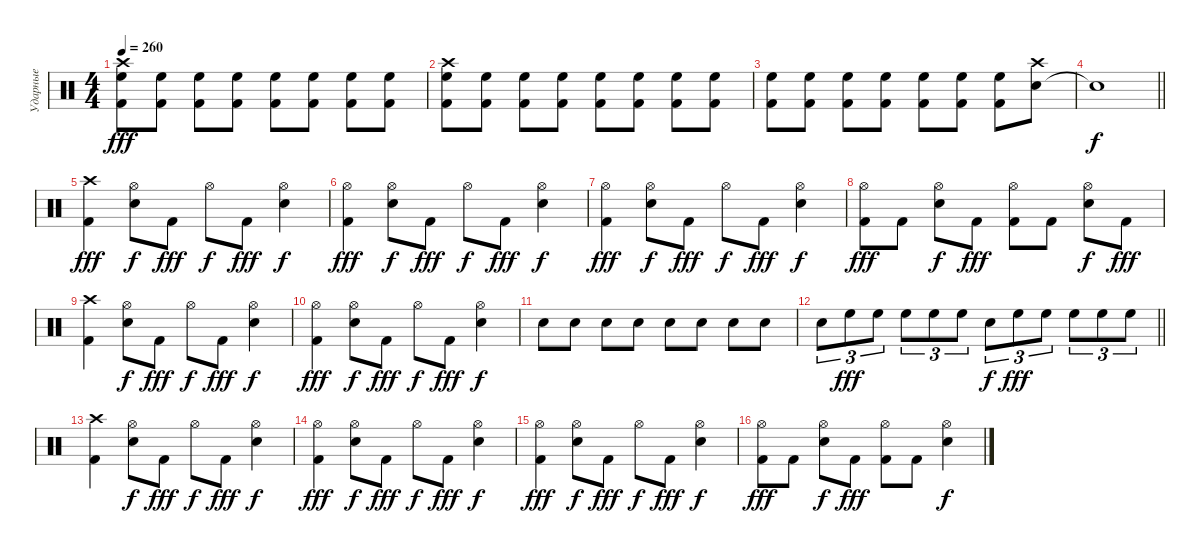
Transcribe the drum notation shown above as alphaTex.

\track ("Ударные" "Ударные") {instrument percussion}
\staff {score}
\articulation defaults
\ts (4 4)
\tempo 260
\clef neutral
\ks c
("Kick (hit) 2" "High Floor Tom (hit)" "Crash high (hit)").8{dy fff} ("Kick (hit) 2" "High Floor Tom (hit)").8 ("Kick (hit) 2" "High Floor Tom (hit)").8 ("Kick (hit) 2" "High Floor Tom (hit)").8 ("Kick (hit) 2" "High Floor Tom (hit)").8 ("Kick (hit) 2" "High Floor Tom (hit)").8 ("Kick (hit) 2" "High Floor Tom (hit)").8 ("Kick (hit) 2" "High Floor Tom (hit)").8 |
("Kick (hit) 2" "High Floor Tom (hit)" "Crash high (hit)").8 ("Kick (hit) 2" "High Floor Tom (hit)").8 ("Kick (hit) 2" "High Floor Tom (hit)").8 ("Kick (hit) 2" "High Floor Tom (hit)").8 ("Kick (hit) 2" "High Floor Tom (hit)").8 ("Kick (hit) 2" "High Floor Tom (hit)").8 ("Kick (hit) 2" "High Floor Tom (hit)").8 ("Kick (hit) 2" "High Floor Tom (hit)").8 |
("Kick (hit) 2" "High Floor Tom (hit)").8 ("Kick (hit) 2" "High Floor Tom (hit)").8 ("Kick (hit) 2" "High Floor Tom (hit)").8 ("Kick (hit) 2" "High Floor Tom (hit)").8 ("Kick (hit) 2" "High Floor Tom (hit)").8 ("Kick (hit) 2" "High Floor Tom (hit)").8 ("Kick (hit) 2" "High Floor Tom (hit)").8 ("Snare (hit) 2" "Crash high (hit)").8 |
\barLineRight lightlight "Snare (hit)"{t}.1{dy f}
|
("Kick (hit) 2" "Crash high (hit)").4{dy fff} ("Snare (hit) 2" "Hi-Hat (open)").8{dy f} "Kick (hit) 2".8{dy fff} "Hi-Hat (open)".8{dy f} "Kick (hit) 2".8{dy fff} ("Snare (hit) 2" "Hi-Hat (open)").4{dy f} |
("Kick (hit) 2" "Hi-Hat (open)").4{dy fff} ("Snare (hit) 2" "Hi-Hat (open)").8{dy f} "Kick (hit) 2".8{dy fff} "Hi-Hat (open)".8{dy f} "Kick (hit) 2".8{dy fff} ("Snare (hit) 2" "Hi-Hat (open)").4{dy f} |
("Kick (hit) 2" "Hi-Hat (open)").4{dy fff} ("Snare (hit) 2" "Hi-Hat (open)").8{dy f} "Kick (hit) 2".8{dy fff} "Hi-Hat (open)".8{dy f} "Kick (hit) 2".8{dy fff} ("Snare (hit) 2" "Hi-Hat (open)").4{dy f} |
("Kick (hit) 2" "Hi-Hat (open)").8{dy fff} "Kick (hit) 2".8 ("Snare (hit) 2" "Hi-Hat (open)").8{dy f} "Kick (hit) 2".8{dy fff} ("Kick (hit) 2" "Hi-Hat (open)").8 "Kick (hit) 2".8 ("Snare (hit) 2" "Hi-Hat (open)").8{dy f} "Kick (hit) 2".8{dy fff} |
("Kick (hit) 2" "Crash high (hit)").4 ("Snare (hit) 2" "Hi-Hat (open)").8{dy f} "Kick (hit) 2".8{dy fff} "Hi-Hat (open)".8{dy f} "Kick (hit) 2".8{dy fff} ("Snare (hit) 2" "Hi-Hat (open)").4{dy f} |
("Kick (hit) 2" "Hi-Hat (open)").4{dy fff} ("Snare (hit) 2" "Hi-Hat (open)").8{dy f} "Kick (hit) 2".8{dy fff} "Hi-Hat (open)".8{dy f} "Kick (hit) 2".8{dy fff} ("Snare (hit) 2" "Hi-Hat (open)").4{dy f} |
"Snare (hit) 2".8 "Snare (hit) 2".8 "Snare (hit) 2".8 "Snare (hit) 2".8 "Snare (hit) 2".8 "Snare (hit) 2".8 "Snare (hit) 2".8 "Snare (hit) 2".8 |
\barLineRight lightlight "Snare (hit) 2".8{tu (3 2)} "High Floor Tom (hit)".8{tu (3 2) dy fff} "High Floor Tom (hit)".8{tu (3 2)} "High Floor Tom (hit)".8{tu (3 2)} "High Floor Tom (hit)".8{tu (3 2)} "High Floor Tom (hit)".8{tu (3 2)} "Snare (hit) 2".8{tu (3 2) dy f} "High Floor Tom (hit)".8{tu (3 2) dy fff} "High Floor Tom (hit)".8{tu (3 2)} "High Floor Tom (hit)".8{tu (3 2)} "High Floor Tom (hit)".8{tu (3 2)} "High Floor Tom (hit)".8{tu (3 2)}
|
("Kick (hit) 2" "Crash high (hit)").4 ("Snare (hit) 2" "Hi-Hat (open)").8{dy f} "Kick (hit) 2".8{dy fff} "Hi-Hat (open)".8{dy f} "Kick (hit) 2".8{dy fff} ("Snare (hit) 2" "Hi-Hat (open)").4{dy f} |
("Kick (hit) 2" "Hi-Hat (open)").4{dy fff} ("Snare (hit) 2" "Hi-Hat (open)").8{dy f} "Kick (hit) 2".8{dy fff} "Hi-Hat (open)".8{dy f} "Kick (hit) 2".8{dy fff} ("Snare (hit) 2" "Hi-Hat (open)").4{dy f} |
("Kick (hit) 2" "Hi-Hat (open)").4{dy fff} ("Snare (hit) 2" "Hi-Hat (open)").8{dy f} "Kick (hit) 2".8{dy fff} "Hi-Hat (open)".8{dy f} "Kick (hit) 2".8{dy fff} ("Snare (hit) 2" "Hi-Hat (open)").4{dy f} |
("Kick (hit) 2" "Hi-Hat (open)").8{dy fff} "Kick (hit) 2".8 ("Snare (hit) 2" "Hi-Hat (open)").8{dy f} "Kick (hit) 2".8{dy fff} ("Kick (hit) 2" "Hi-Hat (open)").8 "Kick (hit) 2".8 ("Snare (hit) 2" "Hi-Hat (open)").4{dy f}
